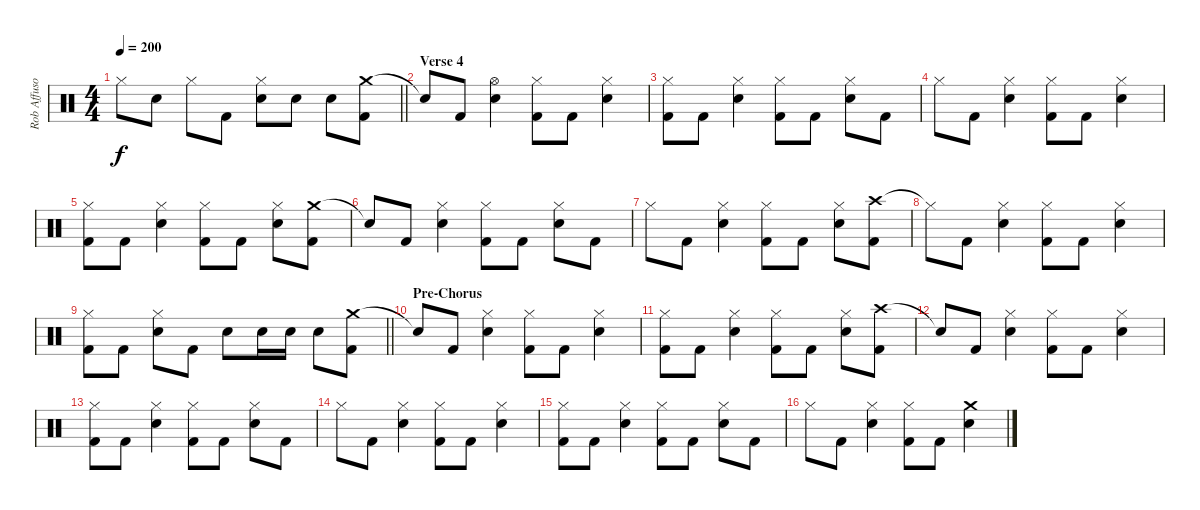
\track ("Rob Affuso - Drums" "Rob Affuso") {instrument percussion}
\staff {score}
\articulation defaults
\ts (4 4)
\tempo 200
\clef neutral
\barLineRight lightlight
\ks c "Hi-Hat (closed)".8{dy f} "Snare (hit) 2".8 "Hi-Hat (closed)".8 "Kick (hit) 2".8
("Hi-Hat (closed)" "Snare (hit) 2").8 "Snare (hit) 2".8 "Snare (hit) 2".8 ("Crash medium (hit)" "Kick (hit) 2").8 |
\section ("" "Verse 4")
"Snare (hit)"{t}.8 "Kick (hit) 2".8 ("Hi-Hat (open)" "Snare (hit) 2").4 ("Hi-Hat (closed)" "Kick (hit) 2").8 "Kick (hit) 2".8 ("Hi-Hat (closed)" "Snare (hit) 2").4 |
("Hi-Hat (closed)" "Kick (hit) 2").8 "Kick (hit) 2".8 ("Hi-Hat (closed)" "Snare (hit) 2").4 ("Hi-Hat (closed)" "Kick (hit) 2").8 "Kick (hit) 2".8 ("Hi-Hat (closed)" "Snare (hit) 2").8 "Kick (hit) 2".8 |
"Hi-Hat (closed)".8 "Kick (hit) 2".8 ("Hi-Hat (closed)" "Snare (hit) 2").4 ("Hi-Hat (closed)" "Kick (hit) 2").8 "Kick (hit) 2".8 ("Hi-Hat (closed)" "Snare (hit) 2").4 |
("Hi-Hat (closed)" "Kick (hit) 2").8 "Kick (hit) 2".8 ("Hi-Hat (closed)" "Snare (hit) 2").4 ("Hi-Hat (closed)" "Kick (hit) 2").8 "Kick (hit) 2".8 ("Hi-Hat (closed)" "Snare (hit) 2").8 ("Crash medium (hit)" "Kick (hit) 2").8 |
"Snare (hit)"{t}.8 "Kick (hit) 2".8 ("Hi-Hat (closed)" "Snare (hit) 2").4 ("Hi-Hat (closed)" "Kick (hit) 2").8 "Kick (hit) 2".8 ("Hi-Hat (closed)" "Snare (hit) 2").8 "Kick (hit) 2".8 |
"Hi-Hat (closed)".8 "Kick (hit) 2".8 ("Hi-Hat (closed)" "Snare (hit) 2").4 ("Hi-Hat (closed)" "Kick (hit) 2").8 "Kick (hit) 2".8 ("Hi-Hat (closed)" "Snare (hit) 2").8 ("Crash high (hit)" "Kick (hit) 2").8 |
"Hi-Hat (closed)"{t}.8 "Kick (hit) 2".8 ("Hi-Hat (closed)" "Snare (hit) 2").4 ("Hi-Hat (closed)" "Kick (hit) 2").8 "Kick (hit) 2".8 ("Hi-Hat (closed)" "Snare (hit) 2").4 |
\barLineRight lightlight
("Hi-Hat (closed)" "Kick (hit) 2").8 "Kick (hit) 2".8 ("Hi-Hat (closed)" "Snare (hit) 2").8 "Kick (hit) 2".8 "Snare (hit) 2".8 "Snare (hit) 2".16 "Snare (hit) 2".16 "Snare (hit) 2".8 ("Crash medium (hit)" "Kick (hit) 2").8 |
\section ("" "Pre-Chorus")
"Snare (hit)"{t}.8 "Kick (hit) 2".8 ("Hi-Hat (closed)" "Snare (hit) 2").4 ("Hi-Hat (closed)" "Kick (hit) 2").8 "Kick (hit) 2".8 ("Hi-Hat (closed)" "Snare (hit) 2").4 |
("Hi-Hat (closed)" "Kick (hit) 2").8 "Kick (hit) 2".8 ("Hi-Hat (closed)" "Snare (hit) 2").4 ("Hi-Hat (closed)" "Kick (hit) 2").8 "Kick (hit) 2".8 ("Hi-Hat (closed)" "Snare (hit) 2").8 ("Crash high (hit)" "Kick (hit) 2").8 |
"Snare (hit)"{t}.8 "Kick (hit) 2".8 ("Hi-Hat (closed)" "Snare (hit) 2").4 ("Hi-Hat (closed)" "Kick (hit) 2").8 "Kick (hit) 2".8 ("Hi-Hat (closed)" "Snare (hit) 2").4 |
("Hi-Hat (closed)" "Kick (hit) 2").8 "Kick (hit) 2".8 ("Hi-Hat (closed)" "Snare (hit) 2").4 ("Hi-Hat (closed)" "Kick (hit) 2").8 "Kick (hit) 2".8 ("Hi-Hat (closed)" "Snare (hit) 2").8 "Kick (hit) 2".8 |
"Hi-Hat (closed)".8 "Kick (hit) 2".8 ("Hi-Hat (closed)" "Snare (hit) 2").4 ("Hi-Hat (closed)" "Kick (hit) 2").8 "Kick (hit) 2".8 ("Hi-Hat (closed)" "Snare (hit) 2").4 |
("Hi-Hat (closed)" "Kick (hit) 2").8 "Kick (hit) 2".8 ("Hi-Hat (closed)" "Snare (hit) 2").4 ("Hi-Hat (closed)" "Kick (hit) 2").8 "Kick (hit) 2".8 ("Hi-Hat (closed)" "Snare (hit) 2").8 "Kick (hit) 2".8 |
"Hi-Hat (closed)".8 "Kick (hit) 2".8 ("Hi-Hat (closed)" "Snare (hit) 2").4 ("Hi-Hat (closed)" "Kick (hit) 2").8 "Kick (hit) 2".8 ("Crash medium (hit)" "Snare (hit) 2").4
